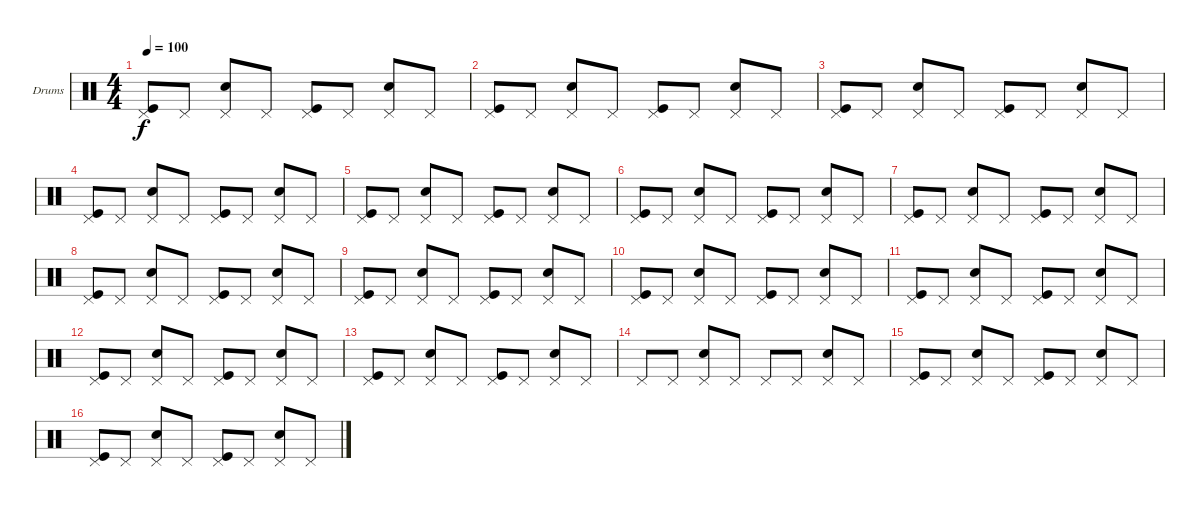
\defaultSystemsLayout 4
\bracketExtendMode groupsimilarinstruments
\firstSystemTrackNameOrientation horizontal
\otherSystemsTrackNameOrientation horizontal
\track ("Drumkit" "Drums") {instrument percussion}
\staff {score}
\articulation defaults
\ts (4 4)
\tempo 100
\clef neutral
\ks c
("Pedal Hi-Hat (hit)" "Kick (hit)").8{dy f} "Pedal Hi-Hat (hit)".8 ("Pedal Hi-Hat (hit)" "Snare (hit) 2").8 "Pedal Hi-Hat (hit)".8 ("Pedal Hi-Hat (hit)" "Kick (hit)").8 "Pedal Hi-Hat (hit)".8 ("Pedal Hi-Hat (hit)" "Snare (hit) 2").8 "Pedal Hi-Hat (hit)".8 |
("Pedal Hi-Hat (hit)" "Kick (hit)").8 "Pedal Hi-Hat (hit)".8 ("Pedal Hi-Hat (hit)" "Snare (hit) 2").8 "Pedal Hi-Hat (hit)".8 ("Pedal Hi-Hat (hit)" "Kick (hit)").8 "Pedal Hi-Hat (hit)".8 ("Pedal Hi-Hat (hit)" "Snare (hit) 2").8 "Pedal Hi-Hat (hit)".8 |
("Pedal Hi-Hat (hit)" "Kick (hit)").8 "Pedal Hi-Hat (hit)".8 ("Pedal Hi-Hat (hit)" "Snare (hit) 2").8 "Pedal Hi-Hat (hit)".8 ("Pedal Hi-Hat (hit)" "Kick (hit)").8 "Pedal Hi-Hat (hit)".8 ("Pedal Hi-Hat (hit)" "Snare (hit) 2").8 "Pedal Hi-Hat (hit)".8 |
("Pedal Hi-Hat (hit)" "Kick (hit)").8 "Pedal Hi-Hat (hit)".8 ("Pedal Hi-Hat (hit)" "Snare (hit) 2").8 "Pedal Hi-Hat (hit)".8 ("Pedal Hi-Hat (hit)" "Kick (hit)").8 "Pedal Hi-Hat (hit)".8 ("Pedal Hi-Hat (hit)" "Snare (hit) 2").8 "Pedal Hi-Hat (hit)".8 |
("Pedal Hi-Hat (hit)" "Kick (hit)").8 "Pedal Hi-Hat (hit)".8 ("Pedal Hi-Hat (hit)" "Snare (hit) 2").8 "Pedal Hi-Hat (hit)".8 ("Pedal Hi-Hat (hit)" "Kick (hit)").8 "Pedal Hi-Hat (hit)".8 ("Pedal Hi-Hat (hit)" "Snare (hit) 2").8 "Pedal Hi-Hat (hit)".8 |
("Pedal Hi-Hat (hit)" "Kick (hit)").8 "Pedal Hi-Hat (hit)".8 ("Pedal Hi-Hat (hit)" "Snare (hit) 2").8 "Pedal Hi-Hat (hit)".8 ("Pedal Hi-Hat (hit)" "Kick (hit)").8 "Pedal Hi-Hat (hit)".8 ("Pedal Hi-Hat (hit)" "Snare (hit) 2").8 "Pedal Hi-Hat (hit)".8 |
("Pedal Hi-Hat (hit)" "Kick (hit)").8 "Pedal Hi-Hat (hit)".8 ("Pedal Hi-Hat (hit)" "Snare (hit) 2").8 "Pedal Hi-Hat (hit)".8 ("Pedal Hi-Hat (hit)" "Kick (hit)").8 "Pedal Hi-Hat (hit)".8 ("Pedal Hi-Hat (hit)" "Snare (hit) 2").8 "Pedal Hi-Hat (hit)".8 |
("Pedal Hi-Hat (hit)" "Kick (hit)").8 "Pedal Hi-Hat (hit)".8 ("Pedal Hi-Hat (hit)" "Snare (hit) 2").8 "Pedal Hi-Hat (hit)".8 ("Pedal Hi-Hat (hit)" "Kick (hit)").8 "Pedal Hi-Hat (hit)".8 ("Pedal Hi-Hat (hit)" "Snare (hit) 2").8 "Pedal Hi-Hat (hit)".8 |
("Pedal Hi-Hat (hit)" "Kick (hit)").8 "Pedal Hi-Hat (hit)".8 ("Pedal Hi-Hat (hit)" "Snare (hit) 2").8 "Pedal Hi-Hat (hit)".8 ("Pedal Hi-Hat (hit)" "Kick (hit)").8 "Pedal Hi-Hat (hit)".8 ("Pedal Hi-Hat (hit)" "Snare (hit) 2").8 "Pedal Hi-Hat (hit)".8 |
("Pedal Hi-Hat (hit)" "Kick (hit)").8 "Pedal Hi-Hat (hit)".8 ("Pedal Hi-Hat (hit)" "Snare (hit) 2").8 "Pedal Hi-Hat (hit)".8 ("Pedal Hi-Hat (hit)" "Kick (hit)").8 "Pedal Hi-Hat (hit)".8 ("Pedal Hi-Hat (hit)" "Snare (hit) 2").8 "Pedal Hi-Hat (hit)".8 |
("Pedal Hi-Hat (hit)" "Kick (hit)").8 "Pedal Hi-Hat (hit)".8 ("Pedal Hi-Hat (hit)" "Snare (hit) 2").8 "Pedal Hi-Hat (hit)".8 ("Pedal Hi-Hat (hit)" "Kick (hit)").8 "Pedal Hi-Hat (hit)".8 ("Pedal Hi-Hat (hit)" "Snare (hit) 2").8 "Pedal Hi-Hat (hit)".8 |
("Pedal Hi-Hat (hit)" "Kick (hit)").8 "Pedal Hi-Hat (hit)".8 ("Pedal Hi-Hat (hit)" "Snare (hit) 2").8 "Pedal Hi-Hat (hit)".8 ("Pedal Hi-Hat (hit)" "Kick (hit)").8 "Pedal Hi-Hat (hit)".8 ("Pedal Hi-Hat (hit)" "Snare (hit) 2").8 "Pedal Hi-Hat (hit)".8 |
("Pedal Hi-Hat (hit)" "Kick (hit)").8 "Pedal Hi-Hat (hit)".8 ("Pedal Hi-Hat (hit)" "Snare (hit) 2").8 "Pedal Hi-Hat (hit)".8 ("Pedal Hi-Hat (hit)" "Kick (hit)").8 "Pedal Hi-Hat (hit)".8 ("Pedal Hi-Hat (hit)" "Snare (hit) 2").8 "Pedal Hi-Hat (hit)".8 |
"Pedal Hi-Hat (hit)".8 "Pedal Hi-Hat (hit)".8 ("Pedal Hi-Hat (hit)" "Snare (hit) 2").8 "Pedal Hi-Hat (hit)".8 "Pedal Hi-Hat (hit)".8 "Pedal Hi-Hat (hit)".8 ("Pedal Hi-Hat (hit)" "Snare (hit) 2").8 "Pedal Hi-Hat (hit)".8 |
("Pedal Hi-Hat (hit)" "Kick (hit)").8 "Pedal Hi-Hat (hit)".8 ("Pedal Hi-Hat (hit)" "Snare (hit) 2").8 "Pedal Hi-Hat (hit)".8 ("Pedal Hi-Hat (hit)" "Kick (hit)").8 "Pedal Hi-Hat (hit)".8 ("Pedal Hi-Hat (hit)" "Snare (hit) 2").8 "Pedal Hi-Hat (hit)".8 |
("Pedal Hi-Hat (hit)" "Kick (hit)").8 "Pedal Hi-Hat (hit)".8 ("Pedal Hi-Hat (hit)" "Snare (hit) 2").8 "Pedal Hi-Hat (hit)".8 ("Pedal Hi-Hat (hit)" "Kick (hit)").8 "Pedal Hi-Hat (hit)".8 ("Pedal Hi-Hat (hit)" "Snare (hit) 2").8 "Pedal Hi-Hat (hit)".8
